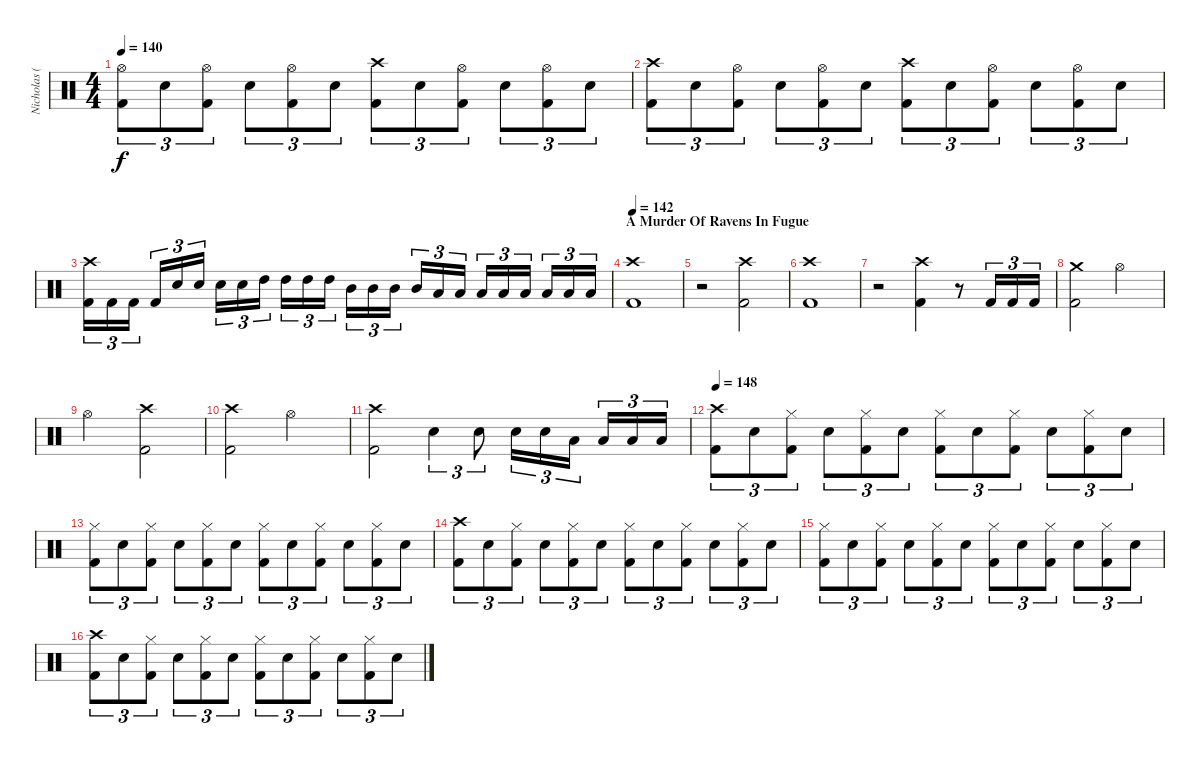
\track ("Nicholas (Drums)" "Nicholas (") {instrument percussion}
\staff {score}
\articulation defaults
\ts (4 4)
\tempo 140
\clef neutral
\ks c
("Hi-Hat (open)" "Kick (hit) 2").8{tu (3 2) dy f} "Electric Snare (hit)".8{tu (3 2)} ("Hi-Hat (open)" "Kick (hit) 2").8{tu (3 2)} "Electric Snare (hit)".8{tu (3 2)} ("Hi-Hat (open)" "Kick (hit) 2").8{tu (3 2)} "Electric Snare (hit)".8{tu (3 2)} ("Crash high (hit)" "Kick (hit) 2").8{tu (3 2)} "Electric Snare (hit)".8{tu (3 2)} ("Hi-Hat (open)" "Kick (hit) 2").8{tu (3 2)} "Electric Snare (hit)".8{tu (3 2)} ("Hi-Hat (open)" "Kick (hit) 2").8{tu (3 2)} "Electric Snare (hit)".8{tu (3 2)} |
("Crash high (hit)" "Kick (hit) 2").8{tu (3 2)} "Electric Snare (hit)".8{tu (3 2)} ("Hi-Hat (open)" "Kick (hit) 2").8{tu (3 2)} "Electric Snare (hit)".8{tu (3 2)} ("Hi-Hat (open)" "Kick (hit) 2").8{tu (3 2)} "Electric Snare (hit)".8{tu (3 2)} ("Crash high (hit)" "Kick (hit) 2").8{tu (3 2)} "Electric Snare (hit)".8{tu (3 2)} ("Hi-Hat (open)" "Kick (hit) 2").8{tu (3 2)} "Electric Snare (hit)".8{tu (3 2)} ("Hi-Hat (open)" "Kick (hit) 2").8{tu (3 2)} "Electric Snare (hit)".8{tu (3 2)} |
("Crash high (hit)" "Kick (hit) 2").16{tu (3 2)} "Kick (hit) 2".16{tu (3 2)} "Kick (hit) 2".16{tu (3 2)} "Kick (hit) 2".16{tu (3 2)} "Electric Snare (hit)".16{tu (3 2)} "Electric Snare (hit)".16{tu (3 2)} "Electric Snare (hit)".16{tu (3 2)} "Electric Snare (hit)".16{tu (3 2)} "High Tom (hit)".16{tu (3 2)} "High Tom (hit)".16{tu (3 2)} "High Tom (hit)".16{tu (3 2)} "High Tom (hit)".16{tu (3 2)} "Mid Tom (hit)".16{tu (3 2)} "Mid Tom (hit)".16{tu (3 2)} "Mid Tom (hit)".16{tu (3 2)} "Mid Tom (hit)".16{tu (3 2)} "Low Tom (hit)".16{tu (3 2)} "Low Tom (hit)".16{tu (3 2)} "Low Tom (hit)".16{tu (3 2)} "Low Tom (hit)".16{tu (3 2)} "Low Floor Tom (hit)".16{tu (3 2)} "Low Floor Tom (hit)".16{tu (3 2)} "Low Floor Tom (hit)".16{tu (3 2)} "Low Floor Tom (hit)".16{tu (3 2)} |
\section ("" "A Murder Of Ravens In Fugue")
\tempo 142
("Crash high (hit)" "Kick (hit) 2").1 |
r.2 ("Crash high (hit)" "Kick (hit) 2").2 |
("Crash high (hit)" "Kick (hit) 2").1 |
r.2 ("Crash high (hit)" "Kick (hit) 2").4 r.8 "Kick (hit) 2".16{tu (3 2)} "Kick (hit) 2".16{tu (3 2)} "Kick (hit) 2".16{tu (3 2)} |
("Crash medium (hit)" "Kick (hit) 2").2 "Hi-Hat (open)".2 |
"Hi-Hat (open)".2 ("Crash high (hit)" "Kick (hit) 2").2 |
("Crash high (hit)" "Kick (hit) 2").2 "Hi-Hat (open)".2 |
("Crash high (hit)" "Kick (hit) 2").2 "Electric Snare (hit)".4{tu (3 2)} "Electric Snare (hit)".8{tu (3 2)} "Electric Snare (hit)".16{tu (3 2)} "Electric Snare (hit)".16{tu (3 2)} "Low Tom (hit)".16{tu (3 2)} "Low Tom (hit)".16{tu (3 2)} "Low Floor Tom (hit)".16{tu (3 2)} "Low Floor Tom (hit)".16{tu (3 2)} |
\tempo 148
("Crash high (hit)" "Kick (hit) 2").8{tu (3 2)} "Electric Snare (hit)".8{tu (3 2)} ("Hi-Hat (closed)" "Kick (hit) 2").8{tu (3 2)} "Electric Snare (hit)".8{tu (3 2)} ("Hi-Hat (closed)" "Kick (hit) 2").8{tu (3 2)} "Electric Snare (hit)".8{tu (3 2)} ("Hi-Hat (closed)" "Kick (hit) 2").8{tu (3 2)} "Electric Snare (hit)".8{tu (3 2)} ("Hi-Hat (closed)" "Kick (hit) 2").8{tu (3 2)} "Electric Snare (hit)".8{tu (3 2)} ("Hi-Hat (closed)" "Kick (hit) 2").8{tu (3 2)} "Electric Snare (hit)".8{tu (3 2)} |
("Hi-Hat (closed)" "Kick (hit) 2").8{tu (3 2)} "Electric Snare (hit)".8{tu (3 2)} ("Hi-Hat (closed)" "Kick (hit) 2").8{tu (3 2)} "Electric Snare (hit)".8{tu (3 2)} ("Hi-Hat (closed)" "Kick (hit) 2").8{tu (3 2)} "Electric Snare (hit)".8{tu (3 2)} ("Hi-Hat (closed)" "Kick (hit) 2").8{tu (3 2)} "Electric Snare (hit)".8{tu (3 2)} ("Hi-Hat (closed)" "Kick (hit) 2").8{tu (3 2)} "Electric Snare (hit)".8{tu (3 2)} ("Hi-Hat (closed)" "Kick (hit) 2").8{tu (3 2)} "Electric Snare (hit)".8{tu (3 2)} |
("Crash high (hit)" "Kick (hit) 2").8{tu (3 2)} "Electric Snare (hit)".8{tu (3 2)} ("Hi-Hat (closed)" "Kick (hit) 2").8{tu (3 2)} "Electric Snare (hit)".8{tu (3 2)} ("Hi-Hat (closed)" "Kick (hit) 2").8{tu (3 2)} "Electric Snare (hit)".8{tu (3 2)} ("Hi-Hat (closed)" "Kick (hit) 2").8{tu (3 2)} "Electric Snare (hit)".8{tu (3 2)} ("Hi-Hat (closed)" "Kick (hit) 2").8{tu (3 2)} "Electric Snare (hit)".8{tu (3 2)} ("Hi-Hat (closed)" "Kick (hit) 2").8{tu (3 2)} "Electric Snare (hit)".8{tu (3 2)} |
("Hi-Hat (closed)" "Kick (hit) 2").8{tu (3 2)} "Electric Snare (hit)".8{tu (3 2)} ("Hi-Hat (closed)" "Kick (hit) 2").8{tu (3 2)} "Electric Snare (hit)".8{tu (3 2)} ("Hi-Hat (closed)" "Kick (hit) 2").8{tu (3 2)} "Electric Snare (hit)".8{tu (3 2)} ("Hi-Hat (closed)" "Kick (hit) 2").8{tu (3 2)} "Electric Snare (hit)".8{tu (3 2)} ("Hi-Hat (closed)" "Kick (hit) 2").8{tu (3 2)} "Electric Snare (hit)".8{tu (3 2)} ("Hi-Hat (closed)" "Kick (hit) 2").8{tu (3 2)} "Electric Snare (hit)".8{tu (3 2)} |
("Crash high (hit)" "Kick (hit) 2").8{tu (3 2)} "Electric Snare (hit)".8{tu (3 2)} ("Hi-Hat (closed)" "Kick (hit) 2").8{tu (3 2)} "Electric Snare (hit)".8{tu (3 2)} ("Hi-Hat (closed)" "Kick (hit) 2").8{tu (3 2)} "Electric Snare (hit)".8{tu (3 2)} ("Hi-Hat (closed)" "Kick (hit) 2").8{tu (3 2)} "Electric Snare (hit)".8{tu (3 2)} ("Hi-Hat (closed)" "Kick (hit) 2").8{tu (3 2)} "Electric Snare (hit)".8{tu (3 2)} ("Hi-Hat (closed)" "Kick (hit) 2").8{tu (3 2)} "Electric Snare (hit)".8{tu (3 2)}
